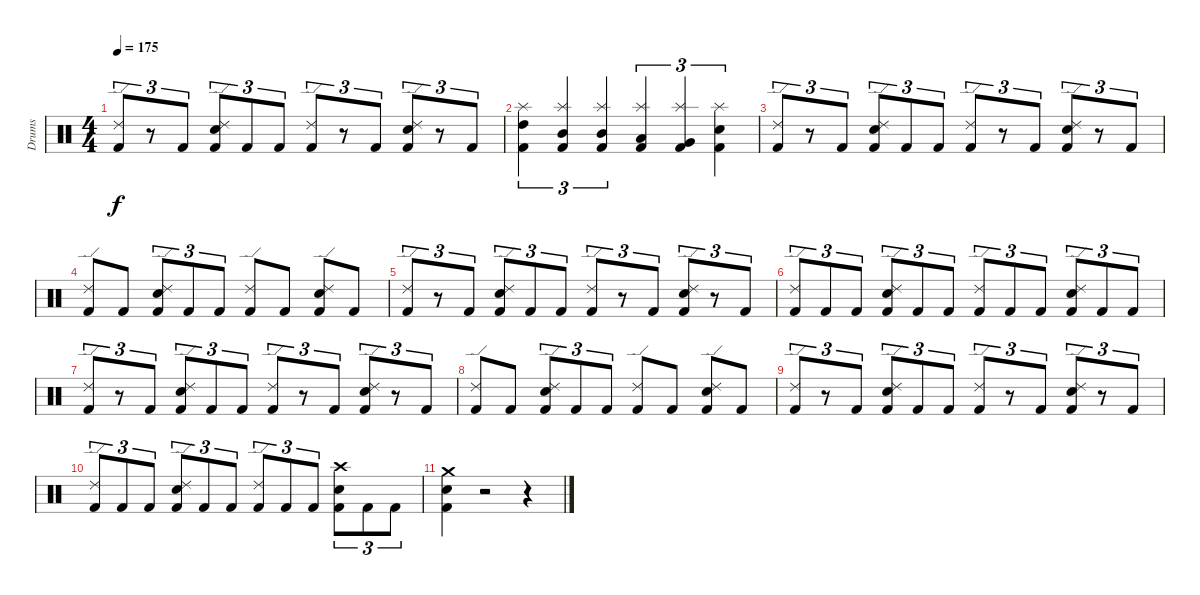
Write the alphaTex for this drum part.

\track ("Drums" "Drums") {instrument percussion}
\staff {score}
\articulation defaults
\ts (4 4)
\tempo 175
\clef neutral
\ks c
("Ride (edge) 2" "Kick (hit) 2").8{tu (3 2) dy f} r.8{tu (3 2)} "Kick (hit) 2".8{tu (3 2)} ("Ride (edge) 2" "Electric Snare (hit)" "Kick (hit) 2").8{tu (3 2)} "Kick (hit) 2".8{tu (3 2)} "Kick (hit) 2".8{tu (3 2)} ("Ride (edge) 2" "Kick (hit) 2").8{tu (3 2)} r.8{tu (3 2)} "Kick (hit) 2".8{tu (3 2)} ("Electric Snare (hit)" "Kick (hit) 2" "Ride (edge) 2").8{tu (3 2)} r.8{tu (3 2)} "Kick (hit) 2".8{tu (3 2)} |
("High Tom (hit)" "Splash (hit)" "Kick (hit) 2").4{tu (3 2)} ("Mid Tom (hit)" "Splash (hit)" "Kick (hit) 2").4{tu (3 2)} ("Mid Tom (hit)" "Splash (hit)" "Kick (hit) 2").4{tu (3 2)} ("Low Tom (hit)" "Splash (hit)" "Kick (hit) 2").4{tu (3 2)} ("Very Low Tom (hit)" "Splash (hit)" "Kick (hit) 2").4{tu (3 2)} ("Electric Snare (hit)" "Splash (hit)" "Kick (hit) 2").4{tu (3 2)} |
("Ride (edge) 2" "Kick (hit) 2").8{tu (3 2)} r.8{tu (3 2)} "Kick (hit) 2".8{tu (3 2)} ("Ride (edge) 2" "Electric Snare (hit)" "Kick (hit) 2").8{tu (3 2)} "Kick (hit) 2".8{tu (3 2)} "Kick (hit) 2".8{tu (3 2)} ("Ride (edge) 2" "Kick (hit) 2").8{tu (3 2)} r.8{tu (3 2)} "Kick (hit) 2".8{tu (3 2)} ("Electric Snare (hit)" "Kick (hit) 2" "Ride (edge) 2").8{tu (3 2)} r.8{tu (3 2)} "Kick (hit) 2".8{tu (3 2)} |
("Ride (edge) 2" "Kick (hit) 2").8 "Kick (hit) 2".8 ("Ride (edge) 2" "Electric Snare (hit)" "Kick (hit) 2").8{tu (3 2)} "Kick (hit) 2".8{tu (3 2)} "Kick (hit) 2".8{tu (3 2)} ("Ride (edge) 2" "Kick (hit) 2").8 "Kick (hit) 2".8 ("Electric Snare (hit)" "Kick (hit) 2" "Ride (edge) 2").8 "Kick (hit) 2".8 |
("Ride (edge) 2" "Kick (hit) 2").8{tu (3 2)} r.8{tu (3 2)} "Kick (hit) 2".8{tu (3 2)} ("Ride (edge) 2" "Electric Snare (hit)" "Kick (hit) 2").8{tu (3 2)} "Kick (hit) 2".8{tu (3 2)} "Kick (hit) 2".8{tu (3 2)} ("Ride (edge) 2" "Kick (hit) 2").8{tu (3 2)} r.8{tu (3 2)} "Kick (hit) 2".8{tu (3 2)} ("Electric Snare (hit)" "Kick (hit) 2" "Ride (edge) 2").8{tu (3 2)} r.8{tu (3 2)} "Kick (hit) 2".8{tu (3 2)} |
("Ride (edge) 2" "Kick (hit) 2").8{tu (3 2)} "Kick (hit) 2".8{tu (3 2)} "Kick (hit) 2".8{tu (3 2)} ("Electric Snare (hit)" "Ride (edge) 2" "Kick (hit) 2").8{tu (3 2)} "Kick (hit) 2".8{tu (3 2)} "Kick (hit) 2".8{tu (3 2)} ("Ride (edge) 2" "Kick (hit) 2").8{tu (3 2)} "Kick (hit) 2".8{tu (3 2)} "Kick (hit) 2".8{tu (3 2)} ("Electric Snare (hit)" "Ride (edge) 2" "Kick (hit) 2").8{tu (3 2)} "Kick (hit) 2".8{tu (3 2)} "Kick (hit) 2".8{tu (3 2)} |
("Ride (edge) 2" "Kick (hit) 2").8{tu (3 2)} r.8{tu (3 2)} "Kick (hit) 2".8{tu (3 2)} ("Ride (edge) 2" "Electric Snare (hit)" "Kick (hit) 2").8{tu (3 2)} "Kick (hit) 2".8{tu (3 2)} "Kick (hit) 2".8{tu (3 2)} ("Ride (edge) 2" "Kick (hit) 2").8{tu (3 2)} r.8{tu (3 2)} "Kick (hit) 2".8{tu (3 2)} ("Electric Snare (hit)" "Kick (hit) 2" "Ride (edge) 2").8{tu (3 2)} r.8{tu (3 2)} "Kick (hit) 2".8{tu (3 2)} |
("Ride (edge) 2" "Kick (hit) 2").8 "Kick (hit) 2".8 ("Ride (edge) 2" "Electric Snare (hit)" "Kick (hit) 2").8{tu (3 2)} "Kick (hit) 2".8{tu (3 2)} "Kick (hit) 2".8{tu (3 2)} ("Ride (edge) 2" "Kick (hit) 2").8 "Kick (hit) 2".8 ("Electric Snare (hit)" "Kick (hit) 2" "Ride (edge) 2").8 "Kick (hit) 2".8 |
("Ride (edge) 2" "Kick (hit) 2").8{tu (3 2)} r.8{tu (3 2)} "Kick (hit) 2".8{tu (3 2)} ("Ride (edge) 2" "Electric Snare (hit)" "Kick (hit) 2").8{tu (3 2)} "Kick (hit) 2".8{tu (3 2)} "Kick (hit) 2".8{tu (3 2)} ("Ride (edge) 2" "Kick (hit) 2").8{tu (3 2)} r.8{tu (3 2)} "Kick (hit) 2".8{tu (3 2)} ("Electric Snare (hit)" "Kick (hit) 2" "Ride (edge) 2").8{tu (3 2)} r.8{tu (3 2)} "Kick (hit) 2".8{tu (3 2)} |
("Ride (edge) 2" "Kick (hit) 2").8{tu (3 2)} "Kick (hit) 2".8{tu (3 2)} "Kick (hit) 2".8{tu (3 2)} ("Ride (edge) 2" "Electric Snare (hit)" "Kick (hit) 2").8{tu (3 2)} "Kick (hit) 2".8{tu (3 2)} "Kick (hit) 2".8{tu (3 2)} ("Ride (edge) 2" "Kick (hit) 2").8{tu (3 2)} "Kick (hit) 2".8{tu (3 2)} "Kick (hit) 2".8{tu (3 2)} ("Crash high (hit)" "Electric Snare (hit)" "Kick (hit) 2").8{tu (3 2)} "Kick (hit) 2".8{tu (3 2)} "Kick (hit) 2".8{tu (3 2)} |
("Crash medium (hit)" "Electric Snare (hit)" "Kick (hit) 2").4 r.2 r.4
